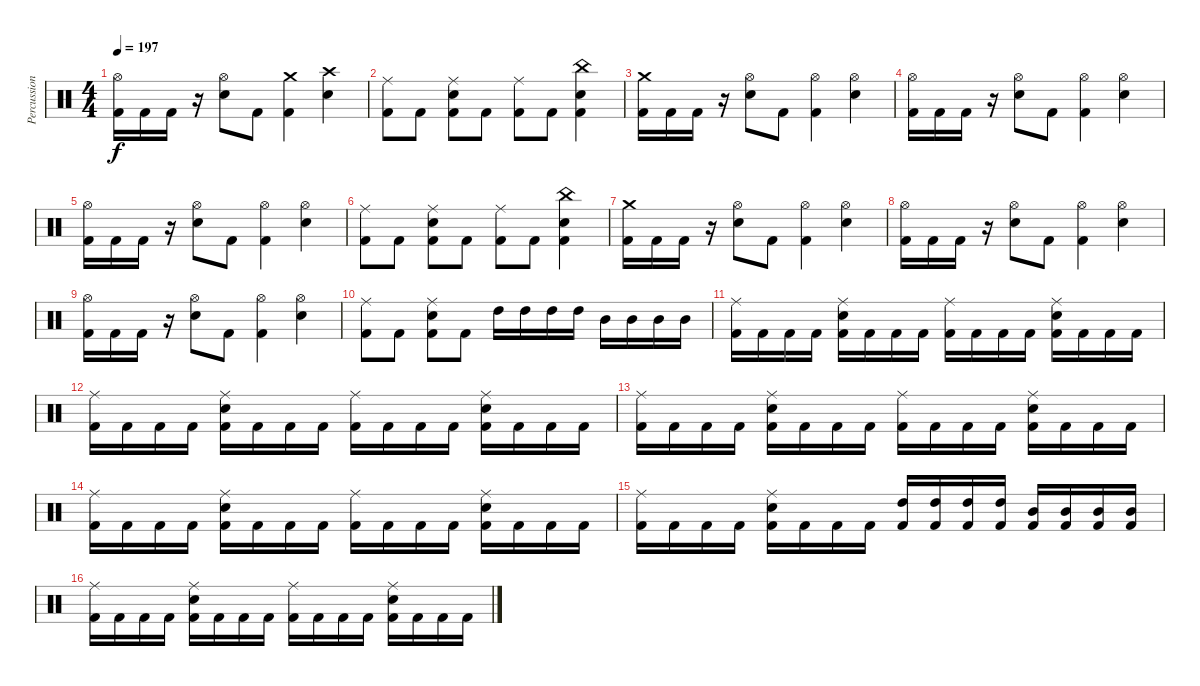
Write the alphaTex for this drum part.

\track ("Percussions" "Percussion") {instrument percussion}
\staff {score}
\articulation defaults
\ts (4 4)
\tempo 197
\clef neutral
\ks c
("Hi-Hat (open)" "Kick (hit) 2").16{dy f} "Kick (hit) 2".16 "Kick (hit) 2".16 r.16 ("Hi-Hat (open)" "Snare (hit) 2").8 "Kick (hit) 2".8 ("Crash medium (hit)" "Kick (hit) 2").4 ("Crash high (hit)" "Snare (hit) 2").4 |
("Ride (middle)" "Kick (hit) 2").8 "Kick (hit) 2".8 ("Ride (middle)" "Snare (hit) 2" "Kick (hit) 2").8 "Kick (hit) 2".8 ("Ride (middle)" "Kick (hit) 2").8 "Kick (hit) 2".8 ("China (hit)" "Snare (hit) 2" "Kick (hit) 2").4 |
("Crash medium (hit)" "Kick (hit) 2").16 "Kick (hit) 2".16 "Kick (hit) 2".16 r.16 ("Hi-Hat (open)" "Snare (hit) 2").8 "Kick (hit) 2".8 ("Hi-Hat (open)" "Kick (hit) 2").4 ("Hi-Hat (open)" "Snare (hit) 2").4 |
("Hi-Hat (open)" "Kick (hit) 2").16 "Kick (hit) 2".16 "Kick (hit) 2".16 r.16 ("Hi-Hat (open)" "Snare (hit) 2").8 "Kick (hit) 2".8 ("Hi-Hat (open)" "Kick (hit) 2").4 ("Hi-Hat (open)" "Snare (hit) 2").4 |
("Hi-Hat (open)" "Kick (hit) 2").16 "Kick (hit) 2".16 "Kick (hit) 2".16 r.16 ("Hi-Hat (open)" "Snare (hit) 2").8 "Kick (hit) 2".8 ("Hi-Hat (open)" "Kick (hit) 2").4 ("Hi-Hat (open)" "Snare (hit) 2").4 |
("Ride (middle)" "Kick (hit) 2").8 "Kick (hit) 2".8 ("Ride (middle)" "Snare (hit) 2" "Kick (hit) 2").8 "Kick (hit) 2".8 ("Ride (middle)" "Kick (hit) 2").8 "Kick (hit) 2".8 ("China (hit)" "Snare (hit) 2" "Kick (hit) 2").4 |
("Crash medium (hit)" "Kick (hit) 2").16 "Kick (hit) 2".16 "Kick (hit) 2".16 r.16 ("Hi-Hat (open)" "Snare (hit) 2").8 "Kick (hit) 2".8 ("Hi-Hat (open)" "Kick (hit) 2").4 ("Hi-Hat (open)" "Snare (hit) 2").4 |
("Hi-Hat (open)" "Kick (hit) 2").16 "Kick (hit) 2".16 "Kick (hit) 2".16 r.16 ("Hi-Hat (open)" "Snare (hit) 2").8 "Kick (hit) 2".8 ("Hi-Hat (open)" "Kick (hit) 2").4 ("Hi-Hat (open)" "Snare (hit) 2").4 |
("Hi-Hat (open)" "Kick (hit) 2").16 "Kick (hit) 2".16 "Kick (hit) 2".16 r.16 ("Hi-Hat (open)" "Snare (hit) 2").8 "Kick (hit) 2".8 ("Hi-Hat (open)" "Kick (hit) 2").4 ("Hi-Hat (open)" "Snare (hit) 2").4 |
("Ride (middle)" "Kick (hit) 2").8 "Kick (hit) 2".8 ("Ride (middle)" "Snare (hit) 2" "Kick (hit) 2").8 "Kick (hit) 2".8 "High Tom (hit)".16 "High Tom (hit)".16 "High Tom (hit)".16 "High Tom (hit)".16 "Mid Tom (hit)".16 "Mid Tom (hit)".16 "Mid Tom (hit)".16 "Mid Tom (hit)".16 |
("Ride (middle)" "Kick (hit) 2").16 "Kick (hit) 2".16 "Kick (hit) 2".16 "Kick (hit) 2".16 ("Ride (middle)" "Snare (hit) 2" "Kick (hit) 2").16 "Kick (hit) 2".16 "Kick (hit) 2".16 "Kick (hit) 2".16 ("Ride (middle)" "Kick (hit) 2").16 "Kick (hit) 2".16 "Kick (hit) 2".16 "Kick (hit) 2".16 ("Ride (middle)" "Snare (hit) 2" "Kick (hit) 2").16 "Kick (hit) 2".16 "Kick (hit) 2".16 "Kick (hit) 2".16 |
("Ride (middle)" "Kick (hit) 2").16 "Kick (hit) 2".16 "Kick (hit) 2".16 "Kick (hit) 2".16 ("Ride (middle)" "Snare (hit) 2" "Kick (hit) 2").16 "Kick (hit) 2".16 "Kick (hit) 2".16 "Kick (hit) 2".16 ("Ride (middle)" "Kick (hit) 2").16 "Kick (hit) 2".16 "Kick (hit) 2".16 "Kick (hit) 2".16 ("Ride (middle)" "Snare (hit) 2" "Kick (hit) 2").16 "Kick (hit) 2".16 "Kick (hit) 2".16 "Kick (hit) 2".16 |
("Ride (middle)" "Kick (hit) 2").16 "Kick (hit) 2".16 "Kick (hit) 2".16 "Kick (hit) 2".16 ("Ride (middle)" "Snare (hit) 2" "Kick (hit) 2").16 "Kick (hit) 2".16 "Kick (hit) 2".16 "Kick (hit) 2".16 ("Ride (middle)" "Kick (hit) 2").16 "Kick (hit) 2".16 "Kick (hit) 2".16 "Kick (hit) 2".16 ("Ride (middle)" "Snare (hit) 2" "Kick (hit) 2").16 "Kick (hit) 2".16 "Kick (hit) 2".16 "Kick (hit) 2".16 |
("Ride (middle)" "Kick (hit) 2").16 "Kick (hit) 2".16 "Kick (hit) 2".16 "Kick (hit) 2".16 ("Ride (middle)" "Snare (hit) 2" "Kick (hit) 2").16 "Kick (hit) 2".16 "Kick (hit) 2".16 "Kick (hit) 2".16 ("Ride (middle)" "Kick (hit) 2").16 "Kick (hit) 2".16 "Kick (hit) 2".16 "Kick (hit) 2".16 ("Ride (middle)" "Snare (hit) 2" "Kick (hit) 2").16 "Kick (hit) 2".16 "Kick (hit) 2".16 "Kick (hit) 2".16 |
("Ride (middle)" "Kick (hit) 2").16 "Kick (hit) 2".16 "Kick (hit) 2".16 "Kick (hit) 2".16 ("Ride (middle)" "Snare (hit) 2" "Kick (hit) 2").16 "Kick (hit) 2".16 "Kick (hit) 2".16 "Kick (hit) 2".16 ("High Tom (hit)" "Kick (hit) 2").16 ("High Tom (hit)" "Kick (hit) 2").16 ("High Tom (hit)" "Kick (hit) 2").16 ("High Tom (hit)" "Kick (hit) 2").16 ("Mid Tom (hit)" "Kick (hit) 2").16 ("Mid Tom (hit)" "Kick (hit) 2").16 ("Mid Tom (hit)" "Kick (hit) 2").16 ("Mid Tom (hit)" "Kick (hit) 2").16 |
("Ride (middle)" "Kick (hit) 2").16 "Kick (hit) 2".16 "Kick (hit) 2".16 "Kick (hit) 2".16 ("Ride (middle)" "Snare (hit) 2" "Kick (hit) 2").16 "Kick (hit) 2".16 "Kick (hit) 2".16 "Kick (hit) 2".16 ("Ride (middle)" "Kick (hit) 2").16 "Kick (hit) 2".16 "Kick (hit) 2".16 "Kick (hit) 2".16 ("Ride (middle)" "Snare (hit) 2" "Kick (hit) 2").16 "Kick (hit) 2".16 "Kick (hit) 2".16 "Kick (hit) 2".16
